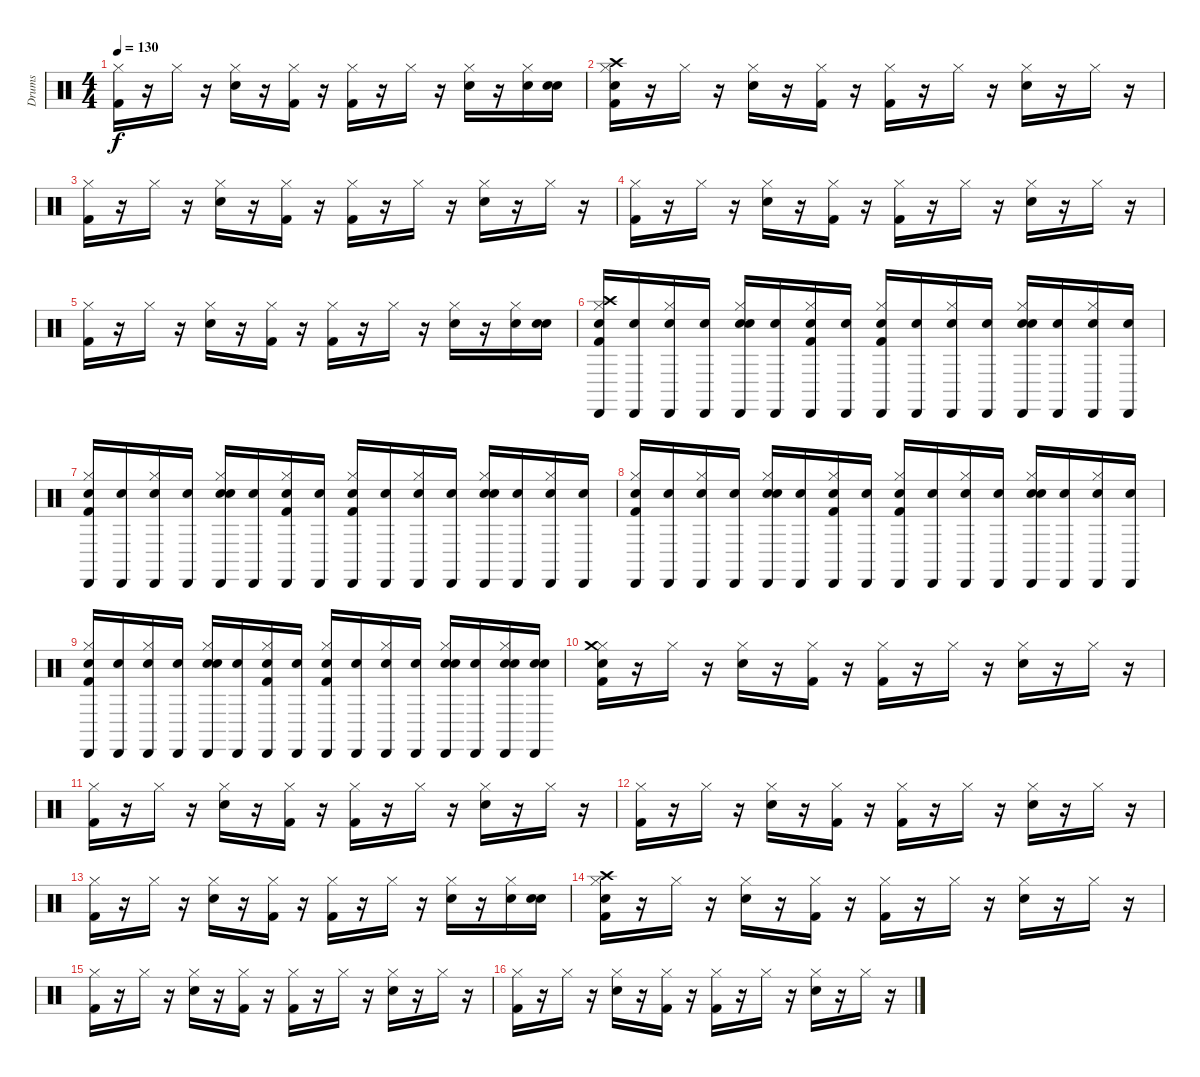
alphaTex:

\track ("Drums" "Drums") {instrument percussion}
\staff {score}
\articulation defaults
\ts (4 4)
\tempo 130
\clef neutral
\ks c
("Kick (hit) 2" "Hi-Hat (closed)").16{dy f} r.16 "Hi-Hat (closed)".16 r.16 ("Snare (hit) 2" "Hi-Hat (closed)").16 r.16 ("Hi-Hat (closed)" "Kick (hit) 2").16 r.16 ("Hi-Hat (closed)" "Kick (hit) 2").16 r.16 "Hi-Hat (closed)".16 r.16 ("Snare (hit) 2" "Hi-Hat (closed)").16 r.16 ("Snare (hit) 2" "Hi-Hat (closed)").16 ("Snare (hit)" "Snare (hit) 2").16 |
("Snare (hit)" "Kick (hit) 2" "Hi-Hat (closed)" "Crash high (hit)").16 r.16 "Hi-Hat (closed)".16 r.16 ("Snare (hit) 2" "Hi-Hat (closed)").16 r.16 ("Kick (hit) 2" "Hi-Hat (closed)").16 r.16 ("Kick (hit) 2" "Hi-Hat (closed)").16 r.16 "Hi-Hat (closed)".16 r.16 ("Snare (hit) 2" "Hi-Hat (closed)").16 r.16 "Hi-Hat (closed)".16 r.16 |
("Kick (hit) 2" "Hi-Hat (closed)").16 r.16 "Hi-Hat (closed)".16 r.16 ("Snare (hit) 2" "Hi-Hat (closed)").16 r.16 ("Hi-Hat (closed)" "Kick (hit) 2").16 r.16 ("Hi-Hat (closed)" "Kick (hit) 2").16 r.16 "Hi-Hat (closed)".16 r.16 ("Snare (hit) 2" "Hi-Hat (closed)").16 r.16 "Hi-Hat (closed)".16 r.16 |
("Hi-Hat (closed)" "Kick (hit) 2").16 r.16 "Hi-Hat (closed)".16 r.16 ("Snare (hit) 2" "Hi-Hat (closed)").16 r.16 ("Kick (hit) 2" "Hi-Hat (closed)").16 r.16 ("Kick (hit) 2" "Hi-Hat (closed)").16 r.16 "Hi-Hat (closed)".16 r.16 ("Snare (hit) 2" "Hi-Hat (closed)").16 r.16 "Hi-Hat (closed)".16 r.16 |
("Hi-Hat (closed)" "Kick (hit) 2").16 r.16 "Hi-Hat (closed)".16 r.16 ("Snare (hit) 2" "Hi-Hat (closed)").16 r.16 ("Hi-Hat (closed)" "Kick (hit) 2").16 r.16 ("Kick (hit) 2" "Hi-Hat (closed)").16 r.16 "Hi-Hat (closed)".16 r.16 ("Snare (hit) 2" "Hi-Hat (closed)").16 r.16 ("Snare (hit) 2" "Hi-Hat (closed)").16 ("Snare (hit)" "Snare (hit) 2").16 |
("Snare (hit)" "Kick (hit) 2" "Hi-Hat (closed)" "Crash high (hit)" "Cabasa (hit)").16 ("Snare (hit)" "Cabasa (hit)").16 ("Snare (hit)" "Cabasa (hit)" "Hi-Hat (closed)").16 ("Snare (hit)" "Cabasa (hit)").16 ("Snare (hit)" "Cabasa (hit)" "Snare (hit) 2" "Hi-Hat (closed)").16 ("Snare (hit)" "Cabasa (hit)").16 ("Snare (hit)" "Kick (hit) 2" "Hi-Hat (closed)" "Cabasa (hit)").16 ("Snare (hit)" "Cabasa (hit)").16 ("Snare (hit)" "Hi-Hat (closed)" "Cabasa (hit)" "Kick (hit) 2").16 ("Snare (hit)" "Cabasa (hit)").16 ("Snare (hit)" "Cabasa (hit)" "Hi-Hat (closed)").16 ("Snare (hit)" "Cabasa (hit)").16 ("Snare (hit)" "Hi-Hat (closed)" "Cabasa (hit)" "Snare (hit) 2").16 ("Snare (hit)" "Cabasa (hit)").16 ("Snare (hit)" "Hi-Hat (closed)" "Cabasa (hit)").16 ("Snare (hit)" "Cabasa (hit)").16 |
("Snare (hit)" "Cabasa (hit)" "Hi-Hat (closed)" "Kick (hit) 2").16 ("Snare (hit)" "Cabasa (hit)").16 ("Snare (hit)" "Cabasa (hit)" "Hi-Hat (closed)").16 ("Snare (hit)" "Cabasa (hit)").16 ("Snare (hit)" "Hi-Hat (closed)" "Snare (hit) 2" "Cabasa (hit)").16 ("Snare (hit)" "Cabasa (hit)").16 ("Snare (hit)" "Cabasa (hit)" "Kick (hit) 2" "Hi-Hat (closed)").16 ("Snare (hit)" "Cabasa (hit)").16 ("Snare (hit)" "Hi-Hat (closed)" "Kick (hit) 2" "Cabasa (hit)").16 ("Snare (hit)" "Cabasa (hit)").16 ("Snare (hit)" "Hi-Hat (closed)" "Cabasa (hit)").16 ("Snare (hit)" "Cabasa (hit)").16 ("Snare (hit)" "Snare (hit) 2" "Hi-Hat (closed)" "Cabasa (hit)").16 ("Snare (hit)" "Cabasa (hit)").16 ("Snare (hit)" "Hi-Hat (closed)" "Cabasa (hit)").16 ("Snare (hit)" "Cabasa (hit)").16 |
("Snare (hit)" "Hi-Hat (closed)" "Kick (hit) 2" "Cabasa (hit)").16 ("Snare (hit)" "Cabasa (hit)").16 ("Snare (hit)" "Cabasa (hit)" "Hi-Hat (closed)").16 ("Snare (hit)" "Cabasa (hit)").16 ("Snare (hit)" "Snare (hit) 2" "Hi-Hat (closed)" "Cabasa (hit)").16 ("Snare (hit)" "Cabasa (hit)").16 ("Snare (hit)" "Hi-Hat (closed)" "Kick (hit) 2" "Cabasa (hit)").16 ("Snare (hit)" "Cabasa (hit)").16 ("Snare (hit)" "Hi-Hat (closed)" "Cabasa (hit)" "Kick (hit) 2").16 ("Snare (hit)" "Cabasa (hit)").16 ("Snare (hit)" "Hi-Hat (closed)" "Cabasa (hit)").16 ("Snare (hit)" "Cabasa (hit)").16 ("Snare (hit)" "Cabasa (hit)" "Snare (hit) 2" "Hi-Hat (closed)").16 ("Snare (hit)" "Cabasa (hit)").16 ("Snare (hit)" "Hi-Hat (closed)" "Cabasa (hit)").16 ("Snare (hit)" "Cabasa (hit)").16 |
("Snare (hit)" "Kick (hit) 2" "Cabasa (hit)" "Hi-Hat (closed)").16 ("Snare (hit)" "Cabasa (hit)").16 ("Snare (hit)" "Hi-Hat (closed)" "Cabasa (hit)").16 ("Snare (hit)" "Cabasa (hit)").16 ("Snare (hit)" "Snare (hit) 2" "Cabasa (hit)" "Hi-Hat (closed)").16 ("Snare (hit)" "Cabasa (hit)").16 ("Snare (hit)" "Cabasa (hit)" "Hi-Hat (closed)" "Kick (hit) 2").16 ("Snare (hit)" "Cabasa (hit)").16 ("Snare (hit)" "Cabasa (hit)" "Hi-Hat (closed)" "Kick (hit) 2").16 ("Snare (hit)" "Cabasa (hit)").16 ("Snare (hit)" "Cabasa (hit)" "Hi-Hat (closed)").16 ("Snare (hit)" "Cabasa (hit)").16 ("Snare (hit)" "Hi-Hat (closed)" "Snare (hit) 2" "Cabasa (hit)").16 ("Snare (hit)" "Cabasa (hit)").16 ("Snare (hit)" "Snare (hit) 2" "Cabasa (hit)" "Hi-Hat (closed)").16 ("Snare (hit)" "Cabasa (hit)" "Snare (hit) 2").16 |
("Snare (hit)" "Kick (hit) 2" "Hi-Hat (closed)" "Crash medium (hit)").16 r.16 "Hi-Hat (closed)".16 r.16 ("Snare (hit) 2" "Hi-Hat (closed)").16 r.16 ("Hi-Hat (closed)" "Kick (hit) 2").16 r.16 ("Hi-Hat (closed)" "Kick (hit) 2").16 r.16 "Hi-Hat (closed)".16 r.16 ("Hi-Hat (closed)" "Snare (hit) 2").16 r.16 "Hi-Hat (closed)".16 r.16 |
("Kick (hit) 2" "Hi-Hat (closed)").16 r.16 "Hi-Hat (closed)".16 r.16 ("Snare (hit) 2" "Hi-Hat (closed)").16 r.16 ("Hi-Hat (closed)" "Kick (hit) 2").16 r.16 ("Hi-Hat (closed)" "Kick (hit) 2").16 r.16 "Hi-Hat (closed)".16 r.16 ("Hi-Hat (closed)" "Snare (hit) 2").16 r.16 "Hi-Hat (closed)".16 r.16 |
("Kick (hit) 2" "Hi-Hat (closed)").16 r.16 "Hi-Hat (closed)".16 r.16 ("Hi-Hat (closed)" "Snare (hit) 2").16 r.16 ("Hi-Hat (closed)" "Kick (hit) 2").16 r.16 ("Hi-Hat (closed)" "Kick (hit) 2").16 r.16 "Hi-Hat (closed)".16 r.16 ("Snare (hit) 2" "Hi-Hat (closed)").16 r.16 "Hi-Hat (closed)".16 r.16 |
("Hi-Hat (closed)" "Kick (hit) 2").16 r.16 "Hi-Hat (closed)".16 r.16 ("Snare (hit) 2" "Hi-Hat (closed)").16 r.16 ("Kick (hit) 2" "Hi-Hat (closed)").16 r.16 ("Hi-Hat (closed)" "Kick (hit) 2").16 r.16 "Hi-Hat (closed)".16 r.16 ("Snare (hit) 2" "Hi-Hat (closed)").16 r.16 ("Snare (hit) 2" "Hi-Hat (closed)").16 ("Snare (hit)" "Snare (hit) 2").16 |
("Snare (hit)" "Hi-Hat (closed)" "Crash high (hit)" "Kick (hit) 2").16 r.16 "Hi-Hat (closed)".16 r.16 ("Hi-Hat (closed)" "Snare (hit) 2").16 r.16 ("Hi-Hat (closed)" "Kick (hit) 2").16 r.16 ("Hi-Hat (closed)" "Kick (hit) 2").16 r.16 "Hi-Hat (closed)".16 r.16 ("Snare (hit) 2" "Hi-Hat (closed)").16 r.16 "Hi-Hat (closed)".16 r.16 |
("Kick (hit) 2" "Hi-Hat (closed)").16 r.16 "Hi-Hat (closed)".16 r.16 ("Snare (hit) 2" "Hi-Hat (closed)").16 r.16 ("Hi-Hat (closed)" "Kick (hit) 2").16 r.16 ("Hi-Hat (closed)" "Kick (hit) 2").16 r.16 "Hi-Hat (closed)".16 r.16 ("Snare (hit) 2" "Hi-Hat (closed)").16 r.16 "Hi-Hat (closed)".16 r.16 |
("Kick (hit) 2" "Hi-Hat (closed)").16 r.16 "Hi-Hat (closed)".16 r.16 ("Hi-Hat (closed)" "Snare (hit) 2").16 r.16 ("Hi-Hat (closed)" "Kick (hit) 2").16 r.16 ("Kick (hit) 2" "Hi-Hat (closed)").16 r.16 "Hi-Hat (closed)".16 r.16 ("Hi-Hat (closed)" "Snare (hit) 2").16 r.16 "Hi-Hat (closed)".16 r.16
